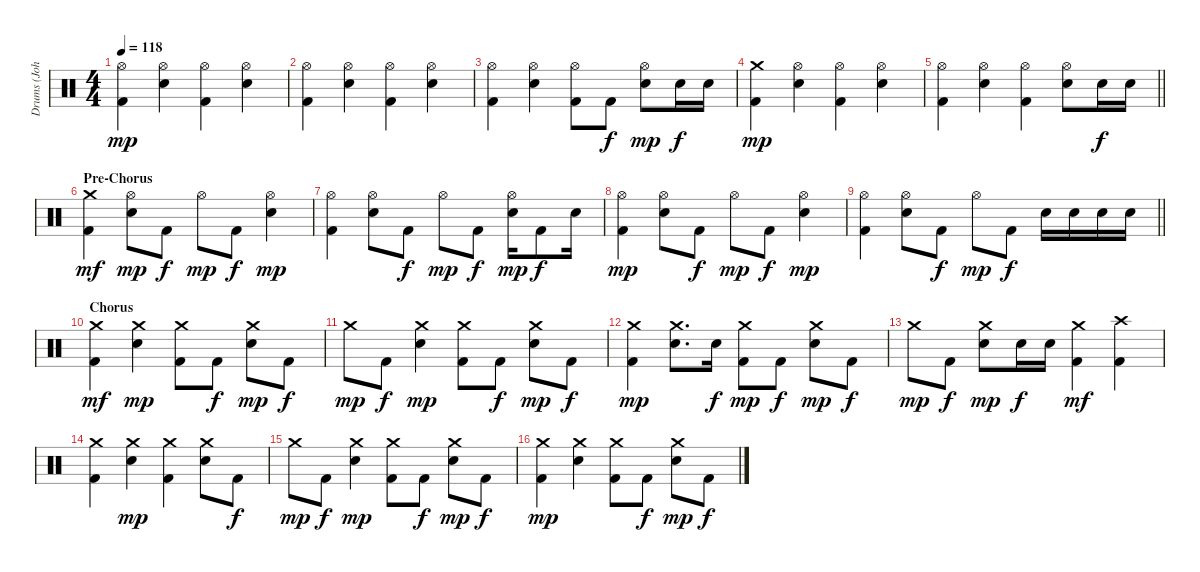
\track ("Drums (John Fred Young)" "Drums (Joh") {instrument percussion}
\staff {score}
\articulation defaults
\ts (4 4)
\tempo 118
\clef neutral
\ks c
("Hi-Hat (open)" "Kick (hit) 2").4{dy mp} ("Hi-Hat (open)" "Electric Snare (hit)").4 ("Hi-Hat (open)" "Kick (hit) 2").4 ("Hi-Hat (open)" "Electric Snare (hit)").4 |
("Hi-Hat (open)" "Kick (hit) 2").4 ("Hi-Hat (open)" "Electric Snare (hit)").4 ("Hi-Hat (open)" "Kick (hit) 2").4 ("Hi-Hat (open)" "Electric Snare (hit)").4 |
("Hi-Hat (open)" "Kick (hit) 2").4 ("Hi-Hat (open)" "Electric Snare (hit)").4 ("Hi-Hat (open)" "Kick (hit) 2").8 "Kick (hit) 2".8{dy f} ("Hi-Hat (open)" "Electric Snare (hit)").8{dy mp} "Electric Snare (hit)".16{dy f} "Electric Snare (hit)".16 |
("Crash medium (hit)" "Kick (hit) 2").4{dy mp} ("Hi-Hat (open)" "Electric Snare (hit)").4 ("Hi-Hat (open)" "Kick (hit) 2").4 ("Hi-Hat (open)" "Electric Snare (hit)").4 |
\barLineRight lightlight
("Hi-Hat (open)" "Kick (hit) 2").4 ("Hi-Hat (open)" "Electric Snare (hit)").4 ("Hi-Hat (open)" "Kick (hit) 2").4 ("Hi-Hat (open)" "Electric Snare (hit)").8 "Electric Snare (hit)".16{dy f} "Electric Snare (hit)".16 |
\section ("" "Pre-Chorus")
("Crash medium (hit)" "Kick (hit) 2").4{dy mf} ("Hi-Hat (open)" "Electric Snare (hit)").8{dy mp} "Kick (hit) 2".8{dy f} "Hi-Hat (open)".8{dy mp} "Kick (hit) 2".8{dy f} ("Hi-Hat (open)" "Electric Snare (hit)").4{dy mp} |
("Hi-Hat (open)" "Kick (hit) 2").4 ("Hi-Hat (open)" "Electric Snare (hit)").8 "Kick (hit) 2".8{dy f} "Hi-Hat (open)".8{dy mp} "Kick (hit) 2".8{dy f} ("Hi-Hat (open)" "Electric Snare (hit)").16{dy mp} "Kick (hit) 2".8{dy f} "Electric Snare (hit)".16 |
("Hi-Hat (open)" "Kick (hit) 2").4{dy mp} ("Hi-Hat (open)" "Electric Snare (hit)").8 "Kick (hit) 2".8{dy f} "Hi-Hat (open)".8{dy mp} "Kick (hit) 2".8{dy f} ("Hi-Hat (open)" "Electric Snare (hit)").4{dy mp} |
\barLineRight lightlight
("Hi-Hat (open)" "Kick (hit) 2").4 ("Hi-Hat (open)" "Electric Snare (hit)").8 "Kick (hit) 2".8{dy f} "Hi-Hat (open)".8{dy mp} "Kick (hit) 2".8{dy f} "Electric Snare (hit)".16 "Electric Snare (hit)".16 "Electric Snare (hit)".16 "Electric Snare (hit)".16 |
\section ("" "Chorus")
("Crash medium (hit)" "Kick (hit) 2").4{dy mf} ("Crash medium (hit)" "Electric Snare (hit)").4{dy mp} ("Crash medium (hit)" "Kick (hit) 2").8 "Kick (hit) 2".8{dy f} ("Crash medium (hit)" "Electric Snare (hit)").8{dy mp} "Kick (hit) 2".8{dy f} |
"Crash medium (hit)".8{dy mp} "Kick (hit) 2".8{dy f} ("Crash medium (hit)" "Electric Snare (hit)").4{dy mp} ("Crash medium (hit)" "Kick (hit) 2").8 "Kick (hit) 2".8{dy f} ("Crash medium (hit)" "Electric Snare (hit)").8{dy mp} "Kick (hit) 2".8{dy f} |
("Crash medium (hit)" "Kick (hit) 2").4{dy mp} ("Crash medium (hit)" "Electric Snare (hit)").8{d} "Electric Snare (hit)".16{dy f} ("Crash medium (hit)" "Kick (hit) 2").8{dy mp} "Kick (hit) 2".8{dy f} ("Crash medium (hit)" "Electric Snare (hit)").8{dy mp} "Kick (hit) 2".8{dy f} |
"Crash medium (hit)".8{dy mp} "Kick (hit) 2".8{dy f} ("Crash medium (hit)" "Electric Snare (hit)").8{dy mp} "Electric Snare (hit)".16{dy f} "Electric Snare (hit)".16 ("Crash medium (hit)" "Kick (hit) 2").4{dy mf} ("Crash high (hit)" "Kick (hit) 2").4 |
("Crash medium (hit)" "Kick (hit) 2").4 ("Crash medium (hit)" "Electric Snare (hit)").4{dy mp} ("Crash medium (hit)" "Kick (hit) 2").4 ("Crash medium (hit)" "Electric Snare (hit)").8 "Kick (hit) 2".8{dy f} |
"Crash medium (hit)".8{dy mp} "Kick (hit) 2".8{dy f} ("Crash medium (hit)" "Electric Snare (hit)").4{dy mp} ("Crash medium (hit)" "Kick (hit) 2").8 "Kick (hit) 2".8{dy f} ("Crash medium (hit)" "Electric Snare (hit)").8{dy mp} "Kick (hit) 2".8{dy f} |
("Crash medium (hit)" "Kick (hit) 2").4{dy mp} ("Crash medium (hit)" "Electric Snare (hit)").4 ("Crash medium (hit)" "Kick (hit) 2").8 "Kick (hit) 2".8{dy f} ("Crash medium (hit)" "Electric Snare (hit)").8{dy mp} "Kick (hit) 2".8{dy f}
